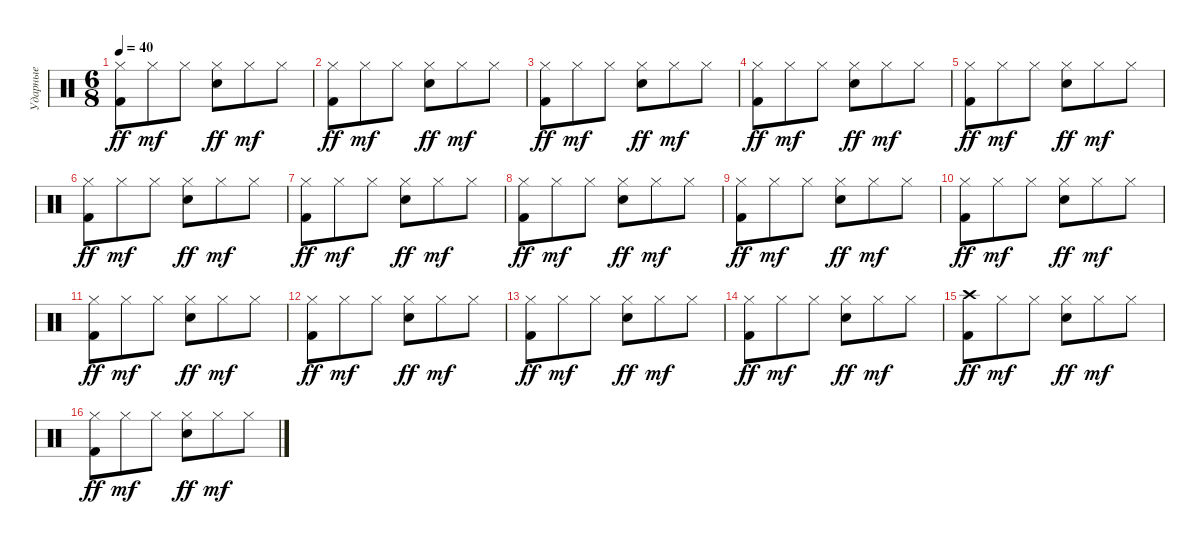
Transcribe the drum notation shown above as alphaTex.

\track ("Ударные" "Ударные") {instrument percussion}
\staff {score}
\articulation defaults
\ts (6 8)
\tempo 40
\clef neutral
\ks c
("Hi-Hat (closed)" "Kick (hit) 2").8{dy ff} "Hi-Hat (closed)".8{dy mf} "Hi-Hat (closed)".8 ("Hi-Hat (closed)" "Snare (hit) 2").8{dy ff} "Hi-Hat (closed)".8{dy mf} "Hi-Hat (closed)".8 |
("Hi-Hat (closed)" "Kick (hit) 2").8{dy ff} "Hi-Hat (closed)".8{dy mf} "Hi-Hat (closed)".8 ("Hi-Hat (closed)" "Snare (hit) 2").8{dy ff} "Hi-Hat (closed)".8{dy mf} "Hi-Hat (closed)".8 |
("Hi-Hat (closed)" "Kick (hit) 2").8{dy ff} "Hi-Hat (closed)".8{dy mf} "Hi-Hat (closed)".8 ("Hi-Hat (closed)" "Snare (hit) 2").8{dy ff} "Hi-Hat (closed)".8{dy mf} "Hi-Hat (closed)".8 |
("Hi-Hat (closed)" "Kick (hit) 2").8{dy ff} "Hi-Hat (closed)".8{dy mf} "Hi-Hat (closed)".8 ("Hi-Hat (closed)" "Snare (hit) 2").8{dy ff} "Hi-Hat (closed)".8{dy mf} "Hi-Hat (closed)".8 |
("Hi-Hat (closed)" "Kick (hit) 2").8{dy ff} "Hi-Hat (closed)".8{dy mf} "Hi-Hat (closed)".8 ("Hi-Hat (closed)" "Snare (hit) 2").8{dy ff} "Hi-Hat (closed)".8{dy mf} "Hi-Hat (closed)".8 |
("Hi-Hat (closed)" "Kick (hit) 2").8{dy ff} "Hi-Hat (closed)".8{dy mf} "Hi-Hat (closed)".8 ("Hi-Hat (closed)" "Snare (hit) 2").8{dy ff} "Hi-Hat (closed)".8{dy mf} "Hi-Hat (closed)".8 |
("Hi-Hat (closed)" "Kick (hit) 2").8{dy ff} "Hi-Hat (closed)".8{dy mf} "Hi-Hat (closed)".8 ("Hi-Hat (closed)" "Snare (hit) 2").8{dy ff} "Hi-Hat (closed)".8{dy mf} "Hi-Hat (closed)".8 |
("Hi-Hat (closed)" "Kick (hit) 2").8{dy ff} "Hi-Hat (closed)".8{dy mf} "Hi-Hat (closed)".8 ("Hi-Hat (closed)" "Snare (hit) 2").8{dy ff} "Hi-Hat (closed)".8{dy mf} "Hi-Hat (closed)".8 |
("Hi-Hat (closed)" "Kick (hit) 2").8{dy ff} "Hi-Hat (closed)".8{dy mf} "Hi-Hat (closed)".8 ("Hi-Hat (closed)" "Snare (hit) 2").8{dy ff} "Hi-Hat (closed)".8{dy mf} "Hi-Hat (closed)".8 |
("Hi-Hat (closed)" "Kick (hit) 2").8{dy ff} "Hi-Hat (closed)".8{dy mf} "Hi-Hat (closed)".8 ("Hi-Hat (closed)" "Snare (hit) 2").8{dy ff} "Hi-Hat (closed)".8{dy mf} "Hi-Hat (closed)".8 |
("Hi-Hat (closed)" "Kick (hit) 2").8{dy ff} "Hi-Hat (closed)".8{dy mf} "Hi-Hat (closed)".8 ("Hi-Hat (closed)" "Snare (hit) 2").8{dy ff} "Hi-Hat (closed)".8{dy mf} "Hi-Hat (closed)".8 |
("Hi-Hat (closed)" "Kick (hit) 2").8{dy ff} "Hi-Hat (closed)".8{dy mf} "Hi-Hat (closed)".8 ("Hi-Hat (closed)" "Snare (hit) 2").8{dy ff} "Hi-Hat (closed)".8{dy mf} "Hi-Hat (closed)".8 |
("Hi-Hat (closed)" "Kick (hit) 2").8{dy ff} "Hi-Hat (closed)".8{dy mf} "Hi-Hat (closed)".8 ("Hi-Hat (closed)" "Snare (hit) 2").8{dy ff} "Hi-Hat (closed)".8{dy mf} "Hi-Hat (closed)".8 |
("Hi-Hat (closed)" "Kick (hit) 2").8{dy ff} "Hi-Hat (closed)".8{dy mf} "Hi-Hat (closed)".8 ("Hi-Hat (closed)" "Snare (hit) 2").8{dy ff} "Hi-Hat (closed)".8{dy mf} "Hi-Hat (closed)".8 |
("Crash high (hit)" "Kick (hit) 2").8{dy ff} "Hi-Hat (closed)".8{dy mf} "Hi-Hat (closed)".8 ("Hi-Hat (closed)" "Snare (hit) 2").8{dy ff} "Hi-Hat (closed)".8{dy mf} "Hi-Hat (closed)".8 |
("Hi-Hat (closed)" "Kick (hit) 2").8{dy ff} "Hi-Hat (closed)".8{dy mf} "Hi-Hat (closed)".8 ("Hi-Hat (closed)" "Snare (hit) 2").8{dy ff} "Hi-Hat (closed)".8{dy mf} "Hi-Hat (closed)".8
